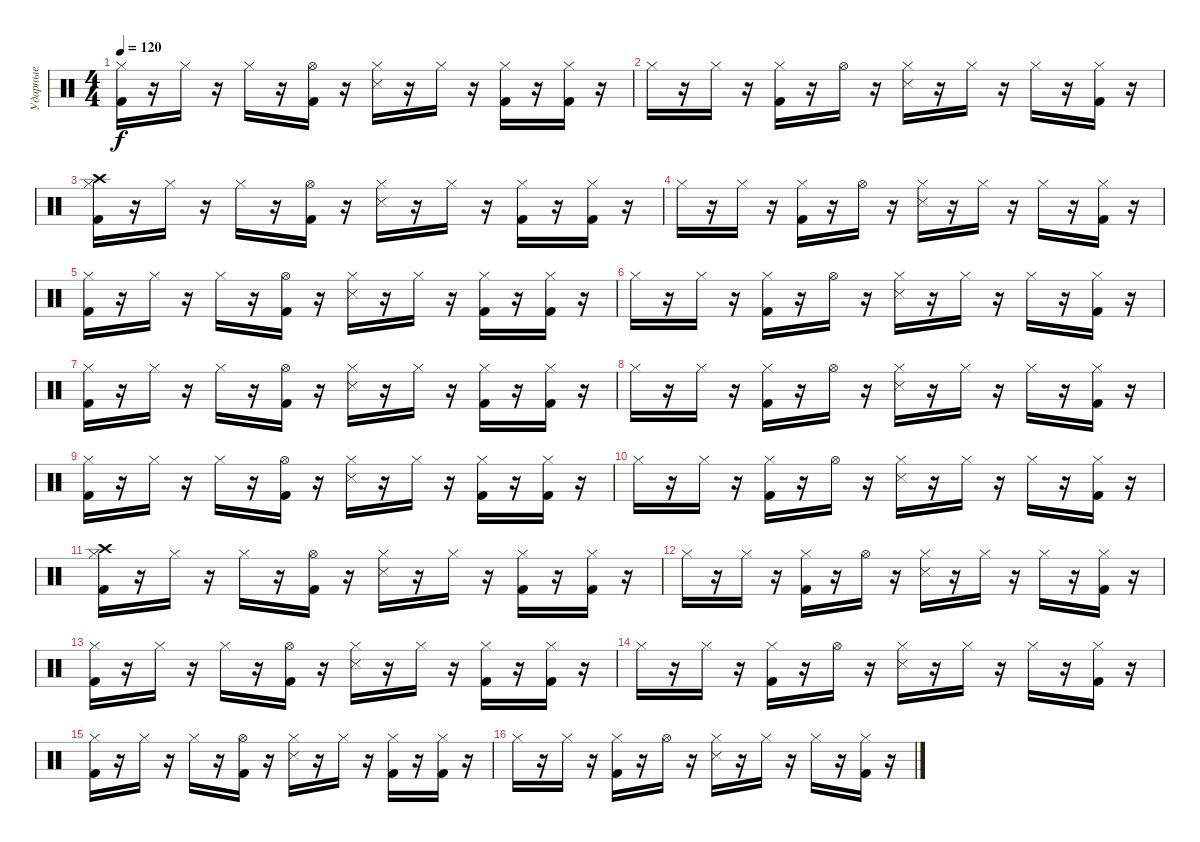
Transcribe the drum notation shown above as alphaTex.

\track ("Ударные" "Ударные") {instrument percussion}
\staff {score}
\articulation defaults
\ts (4 4)
\tempo 120
\clef neutral
\ks c
("Hi-Hat (closed)" "Kick (hit) 2").16{dy f} r.16 "Hi-Hat (closed)".16 r.16 "Hi-Hat (closed)".16 r.16 ("Hi-Hat (open)" "Kick (hit) 2").16 r.16 ("Hi-Hat (closed)" "Snare (side stick) 3").16 r.16 "Hi-Hat (closed)".16 r.16 ("Hi-Hat (closed)" "Kick (hit) 2").16 r.16 ("Hi-Hat (closed)" "Kick (hit) 2").16 r.16 |
"Hi-Hat (closed)".16 r.16 "Hi-Hat (closed)".16 r.16 ("Hi-Hat (closed)" "Kick (hit) 2").16 r.16 "Hi-Hat (open)".16 r.16 ("Hi-Hat (closed)" "Metronome (hit)").16 r.16 "Hi-Hat (closed)".16 r.16 "Hi-Hat (closed)".16 r.16 ("Hi-Hat (closed)" "Kick (hit) 2").16 r.16 |
("Crash high (hit)" "Hi-Hat (closed)" "Kick (hit) 2").16 r.16 "Hi-Hat (closed)".16 r.16 "Hi-Hat (closed)".16 r.16 ("Hi-Hat (open)" "Kick (hit) 2").16 r.16 ("Hi-Hat (closed)" "Snare (side stick) 3").16 r.16 "Hi-Hat (closed)".16 r.16 ("Hi-Hat (closed)" "Kick (hit) 2").16 r.16 ("Hi-Hat (closed)" "Kick (hit) 2").16 r.16 |
"Hi-Hat (closed)".16 r.16 "Hi-Hat (closed)".16 r.16 ("Hi-Hat (closed)" "Kick (hit) 2").16 r.16 "Hi-Hat (open)".16 r.16 ("Hi-Hat (closed)" "Metronome (hit)").16 r.16 "Hi-Hat (closed)".16 r.16 "Hi-Hat (closed)".16 r.16 ("Hi-Hat (closed)" "Kick (hit) 2").16 r.16 |
("Hi-Hat (closed)" "Kick (hit) 2").16 r.16 "Hi-Hat (closed)".16 r.16 "Hi-Hat (closed)".16 r.16 ("Hi-Hat (open)" "Kick (hit) 2").16 r.16 ("Hi-Hat (closed)" "Snare (side stick) 3").16 r.16 "Hi-Hat (closed)".16 r.16 ("Hi-Hat (closed)" "Kick (hit) 2").16 r.16 ("Hi-Hat (closed)" "Kick (hit) 2").16 r.16 |
"Hi-Hat (closed)".16 r.16 "Hi-Hat (closed)".16 r.16 ("Hi-Hat (closed)" "Kick (hit) 2").16 r.16 "Hi-Hat (open)".16 r.16 ("Hi-Hat (closed)" "Metronome (hit)").16 r.16 "Hi-Hat (closed)".16 r.16 "Hi-Hat (closed)".16 r.16 ("Hi-Hat (closed)" "Kick (hit) 2").16 r.16 |
("Hi-Hat (closed)" "Kick (hit) 2").16 r.16 "Hi-Hat (closed)".16 r.16 "Hi-Hat (closed)".16 r.16 ("Hi-Hat (open)" "Kick (hit) 2").16 r.16 ("Hi-Hat (closed)" "Snare (side stick) 3").16 r.16 "Hi-Hat (closed)".16 r.16 ("Hi-Hat (closed)" "Kick (hit) 2").16 r.16 ("Hi-Hat (closed)" "Kick (hit) 2").16 r.16 |
"Hi-Hat (closed)".16 r.16 "Hi-Hat (closed)".16 r.16 ("Hi-Hat (closed)" "Kick (hit) 2").16 r.16 "Hi-Hat (open)".16 r.16 ("Hi-Hat (closed)" "Metronome (hit)").16 r.16 "Hi-Hat (closed)".16 r.16 "Hi-Hat (closed)".16 r.16 ("Hi-Hat (closed)" "Kick (hit) 2").16 r.16 |
("Hi-Hat (closed)" "Kick (hit) 2").16 r.16 "Hi-Hat (closed)".16 r.16 "Hi-Hat (closed)".16 r.16 ("Hi-Hat (open)" "Kick (hit) 2").16 r.16 ("Hi-Hat (closed)" "Snare (side stick) 3").16 r.16 "Hi-Hat (closed)".16 r.16 ("Hi-Hat (closed)" "Kick (hit) 2").16 r.16 ("Hi-Hat (closed)" "Kick (hit) 2").16 r.16 |
"Hi-Hat (closed)".16 r.16 "Hi-Hat (closed)".16 r.16 ("Hi-Hat (closed)" "Kick (hit) 2").16 r.16 "Hi-Hat (open)".16 r.16 ("Hi-Hat (closed)" "Metronome (hit)").16 r.16 "Hi-Hat (closed)".16 r.16 "Hi-Hat (closed)".16 r.16 ("Hi-Hat (closed)" "Kick (hit) 2").16 r.16 |
("Crash high (hit)" "Hi-Hat (closed)" "Kick (hit) 2").16 r.16 "Hi-Hat (closed)".16 r.16 "Hi-Hat (closed)".16 r.16 ("Hi-Hat (open)" "Kick (hit) 2").16 r.16 ("Hi-Hat (closed)" "Snare (side stick) 3").16 r.16 "Hi-Hat (closed)".16 r.16 ("Hi-Hat (closed)" "Kick (hit) 2").16 r.16 ("Hi-Hat (closed)" "Kick (hit) 2").16 r.16 |
"Hi-Hat (closed)".16 r.16 "Hi-Hat (closed)".16 r.16 ("Hi-Hat (closed)" "Kick (hit) 2").16 r.16 "Hi-Hat (open)".16 r.16 ("Hi-Hat (closed)" "Metronome (hit)").16 r.16 "Hi-Hat (closed)".16 r.16 "Hi-Hat (closed)".16 r.16 ("Hi-Hat (closed)" "Kick (hit) 2").16 r.16 |
("Hi-Hat (closed)" "Kick (hit) 2").16 r.16 "Hi-Hat (closed)".16 r.16 "Hi-Hat (closed)".16 r.16 ("Hi-Hat (open)" "Kick (hit) 2").16 r.16 ("Hi-Hat (closed)" "Snare (side stick) 3").16 r.16 "Hi-Hat (closed)".16 r.16 ("Hi-Hat (closed)" "Kick (hit) 2").16 r.16 ("Hi-Hat (closed)" "Kick (hit) 2").16 r.16 |
"Hi-Hat (closed)".16 r.16 "Hi-Hat (closed)".16 r.16 ("Hi-Hat (closed)" "Kick (hit) 2").16 r.16 "Hi-Hat (open)".16 r.16 ("Hi-Hat (closed)" "Metronome (hit)").16 r.16 "Hi-Hat (closed)".16 r.16 "Hi-Hat (closed)".16 r.16 ("Hi-Hat (closed)" "Kick (hit) 2").16 r.16 |
("Hi-Hat (closed)" "Kick (hit) 2").16 r.16 "Hi-Hat (closed)".16 r.16 "Hi-Hat (closed)".16 r.16 ("Hi-Hat (open)" "Kick (hit) 2").16 r.16 ("Hi-Hat (closed)" "Snare (side stick) 3").16 r.16 "Hi-Hat (closed)".16 r.16 ("Hi-Hat (closed)" "Kick (hit) 2").16 r.16 ("Hi-Hat (closed)" "Kick (hit) 2").16 r.16 |
"Hi-Hat (closed)".16 r.16 "Hi-Hat (closed)".16 r.16 ("Hi-Hat (closed)" "Kick (hit) 2").16 r.16 "Hi-Hat (open)".16 r.16 ("Hi-Hat (closed)" "Metronome (hit)").16 r.16 "Hi-Hat (closed)".16 r.16 "Hi-Hat (closed)".16 r.16 ("Hi-Hat (closed)" "Kick (hit) 2").16 r.16
